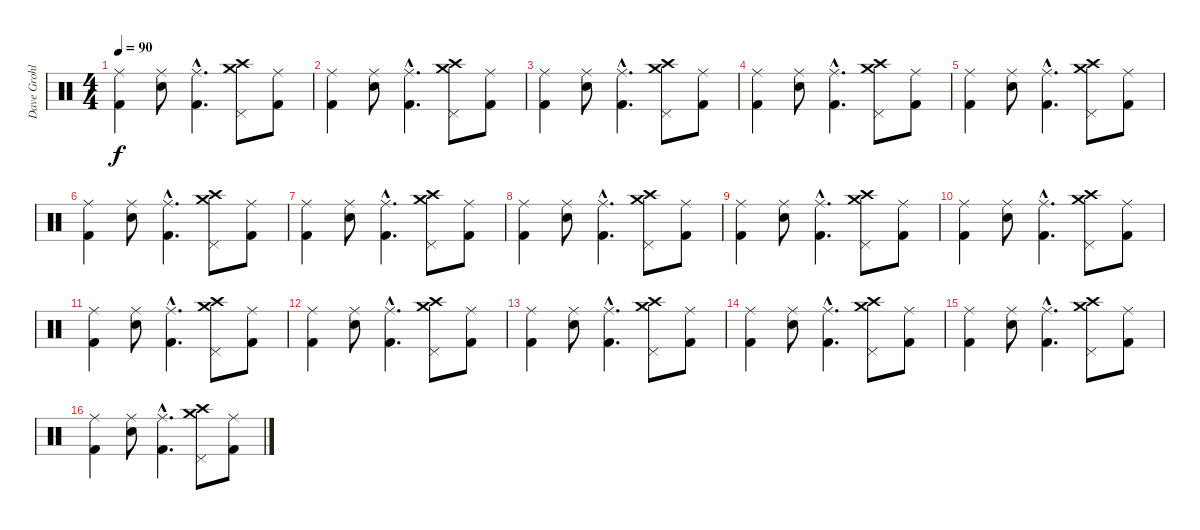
\track ("Dave Grohl" "Dave Grohl") {instrument percussion}
\staff {score}
\articulation defaults
\ts (4 4)
\tempo 90
\clef neutral
\ks c
("Ride (middle)" "Kick (hit) 2").4{dy f} ("Ride (middle)" "Electric Snare (hit)").8 ("Ride (middle)"{hac} "Kick (hit) 2"{hac}).4{d} ("Pedal Hi-Hat (hit)" "Crash high (hit)" "Crash medium (hit)").8 ("Ride (middle)" "Kick (hit) 2").8 |
("Ride (middle)" "Kick (hit) 2").4 ("Ride (middle)" "Electric Snare (hit)").8 ("Ride (middle)"{hac} "Kick (hit) 2"{hac}).4{d} ("Pedal Hi-Hat (hit)" "Crash high (hit)" "Crash medium (hit)").8 ("Ride (middle)" "Kick (hit) 2").8 |
("Ride (middle)" "Kick (hit) 2").4 ("Ride (middle)" "Electric Snare (hit)").8 ("Ride (middle)"{hac} "Kick (hit) 2"{hac}).4{d} ("Pedal Hi-Hat (hit)" "Crash high (hit)" "Crash medium (hit)").8 ("Ride (middle)" "Kick (hit) 2").8 |
("Ride (middle)" "Kick (hit) 2").4 ("Ride (middle)" "Electric Snare (hit)").8 ("Ride (middle)"{hac} "Kick (hit) 2"{hac}).4{d} ("Pedal Hi-Hat (hit)" "Crash high (hit)" "Crash medium (hit)").8 ("Ride (middle)" "Kick (hit) 2").8 |
("Ride (middle)" "Kick (hit) 2").4 ("Ride (middle)" "Electric Snare (hit)").8 ("Ride (middle)"{hac} "Kick (hit) 2"{hac}).4{d} ("Pedal Hi-Hat (hit)" "Crash high (hit)" "Crash medium (hit)").8 ("Ride (middle)" "Kick (hit) 2").8 |
("Ride (middle)" "Kick (hit) 2").4 ("Ride (middle)" "Electric Snare (hit)").8 ("Ride (middle)"{hac} "Kick (hit) 2"{hac}).4{d} ("Pedal Hi-Hat (hit)" "Crash high (hit)" "Crash medium (hit)").8 ("Ride (middle)" "Kick (hit) 2").8 |
("Ride (middle)" "Kick (hit) 2").4 ("Ride (middle)" "Electric Snare (hit)").8 ("Ride (middle)"{hac} "Kick (hit) 2"{hac}).4{d} ("Pedal Hi-Hat (hit)" "Crash high (hit)" "Crash medium (hit)").8 ("Ride (middle)" "Kick (hit) 2").8 |
("Ride (middle)" "Kick (hit) 2").4 ("Ride (middle)" "Electric Snare (hit)").8 ("Ride (middle)"{hac} "Kick (hit) 2"{hac}).4{d} ("Pedal Hi-Hat (hit)" "Crash high (hit)" "Crash medium (hit)").8 ("Ride (middle)" "Kick (hit) 2").8 |
("Ride (middle)" "Kick (hit) 2").4 ("Ride (middle)" "Electric Snare (hit)").8 ("Ride (middle)"{hac} "Kick (hit) 2"{hac}).4{d} ("Pedal Hi-Hat (hit)" "Crash high (hit)" "Crash medium (hit)").8 ("Ride (middle)" "Kick (hit) 2").8 |
("Ride (middle)" "Kick (hit) 2").4 ("Ride (middle)" "Electric Snare (hit)").8 ("Ride (middle)"{hac} "Kick (hit) 2"{hac}).4{d} ("Pedal Hi-Hat (hit)" "Crash high (hit)" "Crash medium (hit)").8 ("Ride (middle)" "Kick (hit) 2").8 |
("Ride (middle)" "Kick (hit) 2").4 ("Ride (middle)" "Electric Snare (hit)").8 ("Ride (middle)"{hac} "Kick (hit) 2"{hac}).4{d} ("Pedal Hi-Hat (hit)" "Crash high (hit)" "Crash medium (hit)").8 ("Ride (middle)" "Kick (hit) 2").8 |
("Ride (middle)" "Kick (hit) 2").4 ("Ride (middle)" "Electric Snare (hit)").8 ("Ride (middle)"{hac} "Kick (hit) 2"{hac}).4{d} ("Pedal Hi-Hat (hit)" "Crash high (hit)" "Crash medium (hit)").8 ("Ride (middle)" "Kick (hit) 2").8 |
("Ride (middle)" "Kick (hit) 2").4 ("Ride (middle)" "Electric Snare (hit)").8 ("Ride (middle)"{hac} "Kick (hit) 2"{hac}).4{d} ("Pedal Hi-Hat (hit)" "Crash high (hit)" "Crash medium (hit)").8 ("Ride (middle)" "Kick (hit) 2").8 |
("Ride (middle)" "Kick (hit) 2").4 ("Ride (middle)" "Electric Snare (hit)").8 ("Ride (middle)"{hac} "Kick (hit) 2"{hac}).4{d} ("Pedal Hi-Hat (hit)" "Crash high (hit)" "Crash medium (hit)").8 ("Ride (middle)" "Kick (hit) 2").8 |
("Ride (middle)" "Kick (hit) 2").4 ("Ride (middle)" "Electric Snare (hit)").8 ("Ride (middle)"{hac} "Kick (hit) 2"{hac}).4{d} ("Pedal Hi-Hat (hit)" "Crash high (hit)" "Crash medium (hit)").8 ("Ride (middle)" "Kick (hit) 2").8 |
("Ride (middle)" "Kick (hit) 2").4 ("Ride (middle)" "Electric Snare (hit)").8 ("Ride (middle)"{hac} "Kick (hit) 2"{hac}).4{d} ("Pedal Hi-Hat (hit)" "Crash high (hit)" "Crash medium (hit)").8 ("Ride (middle)" "Kick (hit) 2").8
